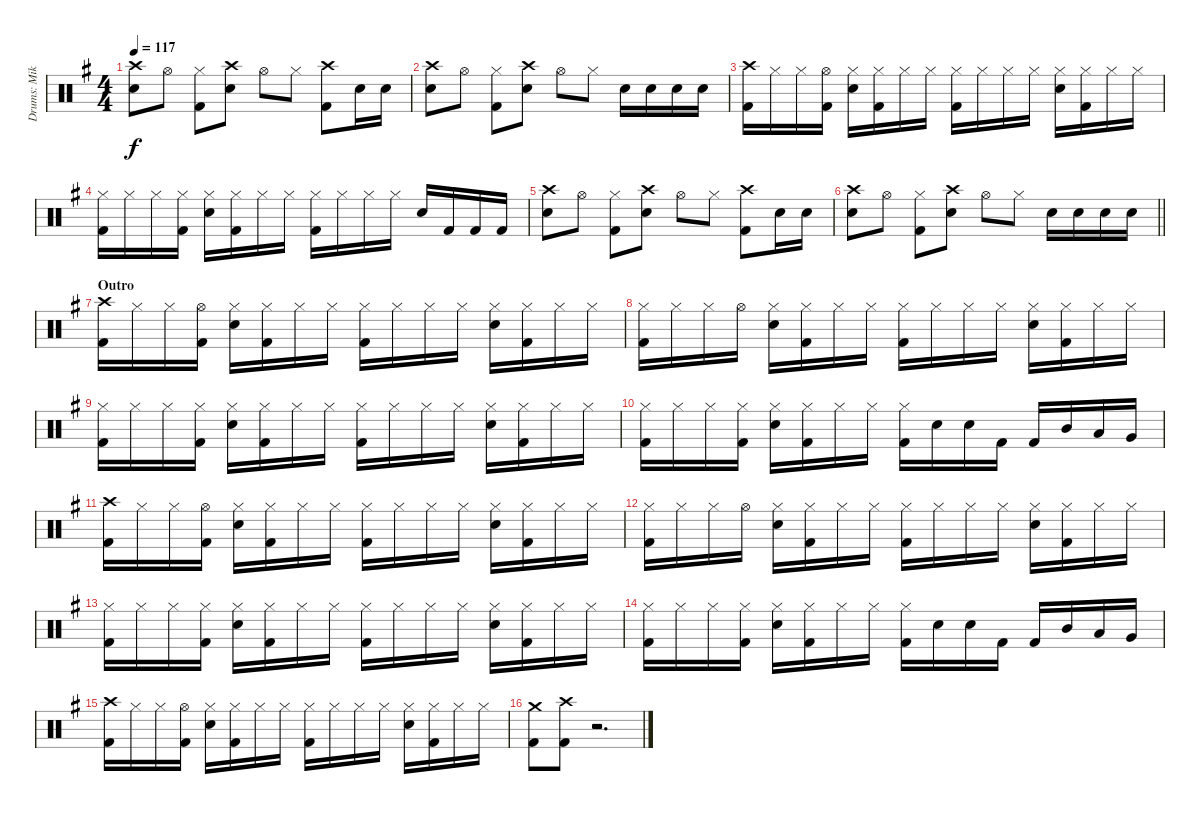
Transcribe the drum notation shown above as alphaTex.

\track ("Drums: Mike" "Drums: Mik") {instrument percussion}
\staff {score}
\articulation defaults
\ts (4 4)
\tempo 117
\clef neutral
\ks g
("Crash high (hit)" "Electric Snare (hit)").8{dy f} "Hi-Hat (open)".8 ("Hi-Hat (closed)" "Kick (hit) 2").8 ("Crash high (hit)" "Electric Snare (hit)").8 "Hi-Hat (open)".8 "Hi-Hat (closed)".8 ("Crash high (hit)" "Kick (hit) 2").8 "Electric Snare (hit)".16 "Electric Snare (hit)".16 |
("Crash high (hit)" "Electric Snare (hit)").8 "Hi-Hat (open)".8 ("Hi-Hat (closed)" "Kick (hit) 2").8 ("Crash high (hit)" "Electric Snare (hit)").8 "Hi-Hat (open)".8 "Hi-Hat (closed)".8 "Electric Snare (hit)".16 "Electric Snare (hit)".16 "Electric Snare (hit)".16 "Electric Snare (hit)".16 |
("Crash high (hit)" "Kick (hit) 2").16 "Hi-Hat (closed)".16 "Hi-Hat (closed)".16 ("Hi-Hat (open)" "Kick (hit) 2").16 ("Hi-Hat (closed)" "Electric Snare (hit)").16 ("Hi-Hat (closed)" "Kick (hit) 2").16 "Hi-Hat (closed)".16 "Hi-Hat (closed)".16 ("Hi-Hat (closed)" "Kick (hit) 2").16 "Hi-Hat (closed)".16 "Hi-Hat (closed)".16 "Hi-Hat (closed)".16 ("Hi-Hat (closed)" "Electric Snare (hit)").16 ("Hi-Hat (closed)" "Kick (hit) 2").16 "Hi-Hat (closed)".16 "Hi-Hat (closed)".16 |
("Hi-Hat (closed)" "Kick (hit) 2").16 "Hi-Hat (closed)".16 "Hi-Hat (closed)".16 ("Hi-Hat (closed)" "Kick (hit) 2").16 ("Hi-Hat (closed)" "Electric Snare (hit)").16 ("Hi-Hat (closed)" "Kick (hit) 2").16 "Hi-Hat (closed)".16 "Hi-Hat (closed)".16 ("Hi-Hat (closed)" "Kick (hit) 2").16 "Hi-Hat (closed)".16 "Hi-Hat (closed)".16 "Hi-Hat (closed)".16 "Electric Snare (hit)".16 "Kick (hit) 2".16 "Kick (hit) 2".16 "Kick (hit) 2".16 |
("Crash high (hit)" "Electric Snare (hit)").8 "Hi-Hat (open)".8 ("Hi-Hat (closed)" "Kick (hit) 2").8 ("Crash high (hit)" "Electric Snare (hit)").8 "Hi-Hat (open)".8 "Hi-Hat (closed)".8 ("Crash high (hit)" "Kick (hit) 2").8 "Electric Snare (hit)".16 "Electric Snare (hit)".16 |
\barLineRight lightlight
("Crash high (hit)" "Electric Snare (hit)").8 "Hi-Hat (open)".8 ("Hi-Hat (closed)" "Kick (hit) 2").8 ("Crash high (hit)" "Electric Snare (hit)").8 "Hi-Hat (open)".8 "Hi-Hat (closed)".8 "Electric Snare (hit)".16 "Electric Snare (hit)".16 "Electric Snare (hit)".16 "Electric Snare (hit)".16 |
\section ("" "Outro")
("Crash high (hit)" "Kick (hit) 2").16 "Hi-Hat (closed)".16 "Hi-Hat (closed)".16 ("Hi-Hat (open)" "Kick (hit) 2").16 ("Hi-Hat (closed)" "Electric Snare (hit)").16 ("Hi-Hat (closed)" "Kick (hit) 2").16 "Hi-Hat (closed)".16 "Hi-Hat (closed)".16 ("Hi-Hat (closed)" "Kick (hit) 2").16 "Hi-Hat (closed)".16 "Hi-Hat (closed)".16 "Hi-Hat (closed)".16 ("Hi-Hat (closed)" "Electric Snare (hit)").16 ("Hi-Hat (closed)" "Kick (hit) 2").16 "Hi-Hat (closed)".16 "Hi-Hat (closed)".16 |
("Hi-Hat (closed)" "Kick (hit) 2").16 "Hi-Hat (closed)".16 "Hi-Hat (closed)".16 "Hi-Hat (open)".16 ("Hi-Hat (closed)" "Electric Snare (hit)").16 ("Hi-Hat (closed)" "Kick (hit) 2").16 "Hi-Hat (closed)".16 "Hi-Hat (closed)".16 ("Hi-Hat (closed)" "Kick (hit) 2").16 "Hi-Hat (closed)".16 "Hi-Hat (closed)".16 "Hi-Hat (closed)".16 ("Hi-Hat (closed)" "Electric Snare (hit)").16 ("Hi-Hat (closed)" "Kick (hit) 2").16 "Hi-Hat (closed)".16 "Hi-Hat (closed)".16 |
("Hi-Hat (closed)" "Kick (hit) 2").16 "Hi-Hat (closed)".16 "Hi-Hat (closed)".16 ("Hi-Hat (closed)" "Kick (hit) 2").16 ("Hi-Hat (closed)" "Electric Snare (hit)").16 ("Hi-Hat (closed)" "Kick (hit) 2").16 "Hi-Hat (closed)".16 "Hi-Hat (closed)".16 ("Hi-Hat (closed)" "Kick (hit) 2").16 "Hi-Hat (closed)".16 "Hi-Hat (closed)".16 "Hi-Hat (closed)".16 ("Hi-Hat (closed)" "Electric Snare (hit)").16 ("Hi-Hat (closed)" "Kick (hit) 2").16 "Hi-Hat (closed)".16 "Hi-Hat (closed)".16 |
("Hi-Hat (closed)" "Kick (hit) 2").16 "Hi-Hat (closed)".16 "Hi-Hat (closed)".16 ("Hi-Hat (closed)" "Kick (hit) 2").16 ("Hi-Hat (closed)" "Electric Snare (hit)").16 ("Hi-Hat (closed)" "Kick (hit) 2").16 "Hi-Hat (closed)".16 "Hi-Hat (closed)".16 ("Hi-Hat (closed)" "Kick (hit) 2").16 "Electric Snare (hit)".16 "Electric Snare (hit)".16 "Kick (hit) 2".16 "Kick (hit) 2".16 "Mid Tom (hit)".16 "Low Tom (hit)".16 "Very Low Tom (hit)".16 |
("Crash high (hit)" "Kick (hit) 2").16 "Hi-Hat (closed)".16 "Hi-Hat (closed)".16 ("Hi-Hat (open)" "Kick (hit) 2").16 ("Hi-Hat (closed)" "Electric Snare (hit)").16 ("Hi-Hat (closed)" "Kick (hit) 2").16 "Hi-Hat (closed)".16 "Hi-Hat (closed)".16 ("Hi-Hat (closed)" "Kick (hit) 2").16 "Hi-Hat (closed)".16 "Hi-Hat (closed)".16 "Hi-Hat (closed)".16 ("Hi-Hat (closed)" "Electric Snare (hit)").16 ("Hi-Hat (closed)" "Kick (hit) 2").16 "Hi-Hat (closed)".16 "Hi-Hat (closed)".16 |
("Hi-Hat (closed)" "Kick (hit) 2").16 "Hi-Hat (closed)".16 "Hi-Hat (closed)".16 "Hi-Hat (open)".16 ("Hi-Hat (closed)" "Electric Snare (hit)").16 ("Hi-Hat (closed)" "Kick (hit) 2").16 "Hi-Hat (closed)".16 "Hi-Hat (closed)".16 ("Hi-Hat (closed)" "Kick (hit) 2").16 "Hi-Hat (closed)".16 "Hi-Hat (closed)".16 "Hi-Hat (closed)".16 ("Hi-Hat (closed)" "Electric Snare (hit)").16 ("Hi-Hat (closed)" "Kick (hit) 2").16 "Hi-Hat (closed)".16 "Hi-Hat (closed)".16 |
("Hi-Hat (closed)" "Kick (hit) 2").16 "Hi-Hat (closed)".16 "Hi-Hat (closed)".16 ("Hi-Hat (closed)" "Kick (hit) 2").16 ("Hi-Hat (closed)" "Electric Snare (hit)").16 ("Hi-Hat (closed)" "Kick (hit) 2").16 "Hi-Hat (closed)".16 "Hi-Hat (closed)".16 ("Hi-Hat (closed)" "Kick (hit) 2").16 "Hi-Hat (closed)".16 "Hi-Hat (closed)".16 "Hi-Hat (closed)".16 ("Hi-Hat (closed)" "Electric Snare (hit)").16 ("Hi-Hat (closed)" "Kick (hit) 2").16 "Hi-Hat (closed)".16 "Hi-Hat (closed)".16 |
("Hi-Hat (closed)" "Kick (hit) 2").16 "Hi-Hat (closed)".16 "Hi-Hat (closed)".16 ("Hi-Hat (closed)" "Kick (hit) 2").16 ("Hi-Hat (closed)" "Electric Snare (hit)").16 ("Hi-Hat (closed)" "Kick (hit) 2").16 "Hi-Hat (closed)".16 "Hi-Hat (closed)".16 ("Hi-Hat (closed)" "Kick (hit) 2").16 "Electric Snare (hit)".16 "Electric Snare (hit)".16 "Kick (hit) 2".16 "Kick (hit) 2".16 "Mid Tom (hit)".16 "Low Tom (hit)".16 "Very Low Tom (hit)".16 |
("Crash high (hit)" "Kick (hit) 2").16 "Hi-Hat (closed)".16 "Hi-Hat (closed)".16 ("Hi-Hat (open)" "Kick (hit) 2").16 ("Hi-Hat (closed)" "Electric Snare (hit)").16 ("Hi-Hat (closed)" "Kick (hit) 2").16 "Hi-Hat (closed)".16 "Hi-Hat (closed)".16 ("Hi-Hat (closed)" "Kick (hit) 2").16 "Hi-Hat (closed)".16 "Hi-Hat (closed)".16 "Hi-Hat (closed)".16 ("Hi-Hat (closed)" "Electric Snare (hit)").16 ("Hi-Hat (closed)" "Kick (hit) 2").16 "Hi-Hat (closed)".16 "Hi-Hat (closed)".16 |
("Crash medium (hit)" "Kick (hit) 2").8 ("Crash high (hit)" "Kick (hit) 2").8 r.2{d}
